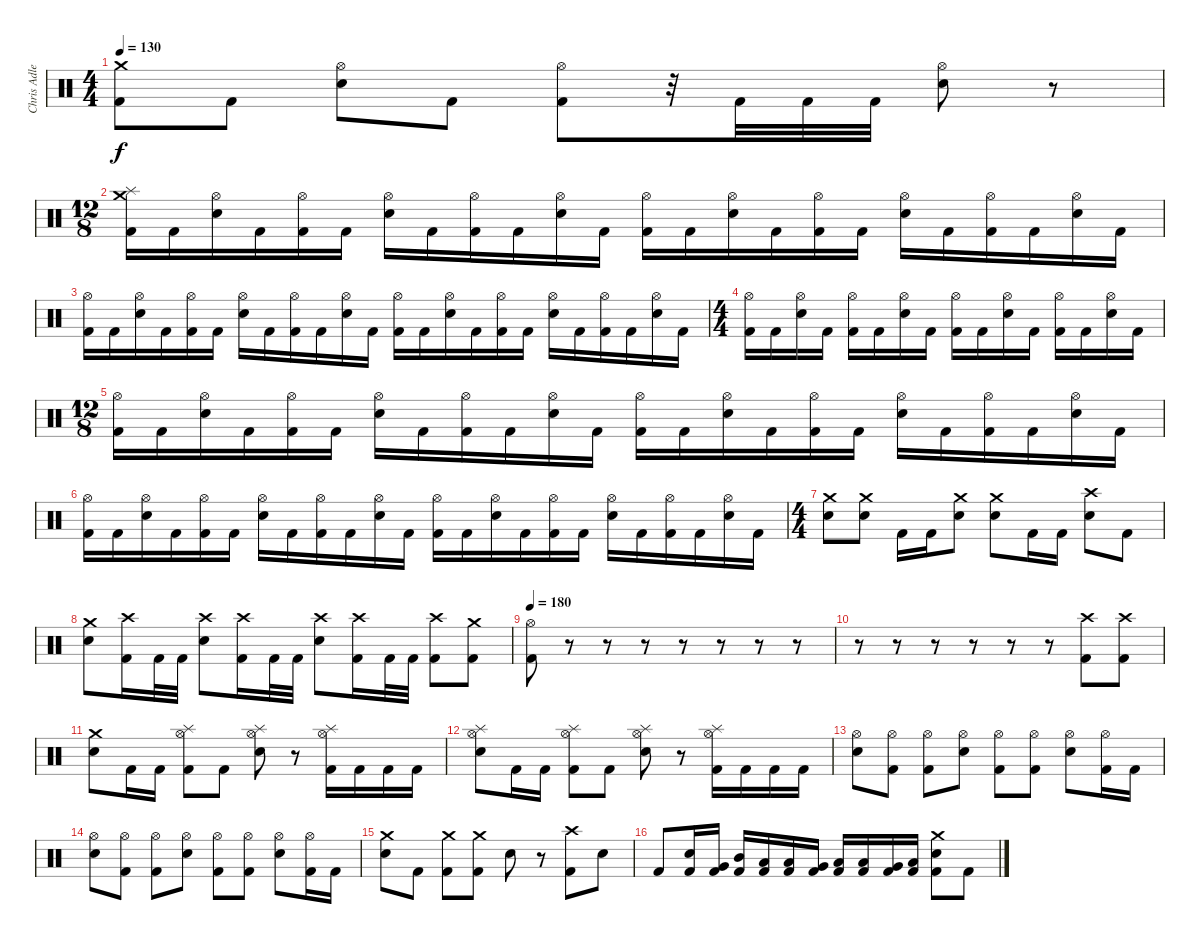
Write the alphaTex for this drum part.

\track ("Chris Adler - Drums" "Chris Adle") {instrument percussion}
\staff {score}
\articulation defaults
\ts (4 4)
\tempo 130
\clef neutral
\ks c
("Crash medium (hit)" "Kick (hit) 2").8{dy f} "Kick (hit) 2".8 ("Hi-Hat (open)" "Snare (hit) 2").8 "Kick (hit) 2".8 ("Hi-Hat (open)" "Kick (hit) 2").8 r.32 "Kick (hit) 2".32 "Kick (hit) 2".32 "Kick (hit) 2".32 ("Hi-Hat (open)" "Snare (hit) 2").8 r.8 |
\ts (12 8)
("Splash (hit)" "Crash medium (hit)" "Kick (hit) 2").16 "Kick (hit) 2".16 ("Hi-Hat (open)" "Snare (hit) 2").16 "Kick (hit) 2".16 ("Hi-Hat (open)" "Kick (hit) 2").16 "Kick (hit) 2".16 ("Hi-Hat (open)" "Snare (hit) 2").16 "Kick (hit) 2".16 ("Hi-Hat (open)" "Kick (hit) 2").16 "Kick (hit) 2".16 ("Hi-Hat (open)" "Snare (hit) 2").16 "Kick (hit) 2".16 ("Hi-Hat (open)" "Kick (hit) 2").16 "Kick (hit) 2".16 ("Hi-Hat (open)" "Snare (hit) 2").16 "Kick (hit) 2".16 ("Hi-Hat (open)" "Kick (hit) 2").16 "Kick (hit) 2".16 ("Hi-Hat (open)" "Snare (hit) 2").16 "Kick (hit) 2".16 ("Hi-Hat (open)" "Kick (hit) 2").16 "Kick (hit) 2".16 ("Hi-Hat (open)" "Snare (hit) 2").16 "Kick (hit) 2".16 |
("Hi-Hat (open)" "Kick (hit) 2").16 "Kick (hit) 2".16 ("Hi-Hat (open)" "Snare (hit) 2").16 "Kick (hit) 2".16 ("Hi-Hat (open)" "Kick (hit) 2").16 "Kick (hit) 2".16 ("Hi-Hat (open)" "Snare (hit) 2").16 "Kick (hit) 2".16 ("Hi-Hat (open)" "Kick (hit) 2").16 "Kick (hit) 2".16 ("Hi-Hat (open)" "Snare (hit) 2").16 "Kick (hit) 2".16 ("Hi-Hat (open)" "Kick (hit) 2").16 "Kick (hit) 2".16 ("Hi-Hat (open)" "Snare (hit) 2").16 "Kick (hit) 2".16 ("Hi-Hat (open)" "Kick (hit) 2").16 "Kick (hit) 2".16 ("Hi-Hat (open)" "Snare (hit) 2").16 "Kick (hit) 2".16 ("Hi-Hat (open)" "Kick (hit) 2").16 "Kick (hit) 2".16 ("Hi-Hat (open)" "Snare (hit) 2").16 "Kick (hit) 2".16 |
\ts (4 4)
("Hi-Hat (open)" "Kick (hit) 2").16 "Kick (hit) 2".16 ("Hi-Hat (open)" "Snare (hit) 2").16 "Kick (hit) 2".16 ("Hi-Hat (open)" "Kick (hit) 2").16 "Kick (hit) 2".16 ("Hi-Hat (open)" "Snare (hit) 2").16 "Kick (hit) 2".16 ("Hi-Hat (open)" "Kick (hit) 2").16 "Kick (hit) 2".16 ("Hi-Hat (open)" "Snare (hit) 2").16 "Kick (hit) 2".16 ("Hi-Hat (open)" "Kick (hit) 2").16 "Kick (hit) 2".16 ("Hi-Hat (open)" "Snare (hit) 2").16 "Kick (hit) 2".16 |
\ts (12 8)
("Hi-Hat (open)" "Kick (hit) 2").16 "Kick (hit) 2".16 ("Hi-Hat (open)" "Snare (hit) 2").16 "Kick (hit) 2".16 ("Hi-Hat (open)" "Kick (hit) 2").16 "Kick (hit) 2".16 ("Hi-Hat (open)" "Snare (hit) 2").16 "Kick (hit) 2".16 ("Hi-Hat (open)" "Kick (hit) 2").16 "Kick (hit) 2".16 ("Hi-Hat (open)" "Snare (hit) 2").16 "Kick (hit) 2".16 ("Hi-Hat (open)" "Kick (hit) 2").16 "Kick (hit) 2".16 ("Hi-Hat (open)" "Snare (hit) 2").16 "Kick (hit) 2".16 ("Hi-Hat (open)" "Kick (hit) 2").16 "Kick (hit) 2".16 ("Hi-Hat (open)" "Snare (hit) 2").16 "Kick (hit) 2".16 ("Hi-Hat (open)" "Kick (hit) 2").16 "Kick (hit) 2".16 ("Hi-Hat (open)" "Snare (hit) 2").16 "Kick (hit) 2".16 |
("Hi-Hat (open)" "Kick (hit) 2").16 "Kick (hit) 2".16 ("Hi-Hat (open)" "Snare (hit) 2").16 "Kick (hit) 2".16 ("Hi-Hat (open)" "Kick (hit) 2").16 "Kick (hit) 2".16 ("Hi-Hat (open)" "Snare (hit) 2").16 "Kick (hit) 2".16 ("Hi-Hat (open)" "Kick (hit) 2").16 "Kick (hit) 2".16 ("Hi-Hat (open)" "Snare (hit) 2").16 "Kick (hit) 2".16 ("Hi-Hat (open)" "Kick (hit) 2").16 "Kick (hit) 2".16 ("Hi-Hat (open)" "Snare (hit) 2").16 "Kick (hit) 2".16 ("Hi-Hat (open)" "Kick (hit) 2").16 "Kick (hit) 2".16 ("Hi-Hat (open)" "Snare (hit) 2").16 "Kick (hit) 2".16 ("Hi-Hat (open)" "Kick (hit) 2").16 "Kick (hit) 2".16 ("Hi-Hat (open)" "Snare (hit) 2").16 "Kick (hit) 2".16 |
\ts (4 4)
("Crash medium (hit)" "Snare (hit) 2").8 ("Crash medium (hit)" "Snare (hit) 2").8 "Kick (hit) 2".16 "Kick (hit) 2".16 ("Crash medium (hit)" "Snare (hit) 2").8 ("Crash medium (hit)" "Snare (hit) 2").8 "Kick (hit) 2".16 "Kick (hit) 2".16 ("Crash high (hit)" "Snare (hit) 2").8 "Kick (hit) 2".8 |
("Crash medium (hit)" "Snare (hit) 2").8 ("Crash high (hit)" "Kick (hit) 2").16 "Kick (hit) 2".32 "Kick (hit) 2".32 ("Crash high (hit)" "Snare (hit) 2").8 ("Crash high (hit)" "Kick (hit) 2").16 "Kick (hit) 2".32 "Kick (hit) 2".32 ("Crash high (hit)" "Snare (hit) 2").8 ("Crash high (hit)" "Kick (hit) 2").16 "Kick (hit) 2".32 "Kick (hit) 2".32 ("Crash high (hit)" "Kick (hit) 2").8 ("Crash medium (hit)" "Kick (hit) 2").8 |
\tempo 180
("Hi-Hat (open)" "Kick (hit) 2").8 r.8 r.8 r.8 r.8 r.8 r.8 r.8 |
r.8 r.8 r.8 r.8 r.8 r.8 ("Crash high (hit)" "Kick (hit) 2").8 ("Crash high (hit)" "Kick (hit) 2").8 |
("Crash medium (hit)" "Snare (hit) 2").8 "Kick (hit) 2".16 "Kick (hit) 2".16 ("Splash (hit)" "Hi-Hat (open)" "Kick (hit) 2").8 "Kick (hit) 2".8 ("Splash (hit)" "Hi-Hat (open)" "Snare (hit) 2").8 r.8 ("Splash (hit)" "Hi-Hat (open)" "Kick (hit) 2").16 "Kick (hit) 2".16 "Kick (hit) 2".16 "Kick (hit) 2".16 |
("Splash (hit)" "Hi-Hat (open)" "Snare (hit) 2").8 "Kick (hit) 2".16 "Kick (hit) 2".16 ("Splash (hit)" "Hi-Hat (open)" "Kick (hit) 2").8 "Kick (hit) 2".8 ("Splash (hit)" "Hi-Hat (open)" "Snare (hit) 2").8 r.8 ("Splash (hit)" "Hi-Hat (open)" "Kick (hit) 2").16 "Kick (hit) 2".16 "Kick (hit) 2".16 "Kick (hit) 2".16 |
("Hi-Hat (open)" "Snare (hit) 2").8 ("Hi-Hat (open)" "Kick (hit) 2").8 ("Hi-Hat (open)" "Kick (hit) 2").8 ("Hi-Hat (open)" "Snare (hit) 2").8 ("Hi-Hat (open)" "Kick (hit) 2").8 ("Hi-Hat (open)" "Kick (hit) 2").8 ("Hi-Hat (open)" "Snare (hit) 2").8 ("Hi-Hat (open)" "Kick (hit) 2").16 "Kick (hit) 2".16 |
("Hi-Hat (open)" "Snare (hit) 2").8 ("Hi-Hat (open)" "Kick (hit) 2").8 ("Hi-Hat (open)" "Kick (hit) 2").8 ("Hi-Hat (open)" "Snare (hit) 2").8 ("Hi-Hat (open)" "Kick (hit) 2").8 ("Hi-Hat (open)" "Kick (hit) 2").8 ("Hi-Hat (open)" "Snare (hit) 2").8 ("Hi-Hat (open)" "Kick (hit) 2").16 "Kick (hit) 2".16 |
("Crash medium (hit)" "Snare (hit) 2").8 "Kick (hit) 2".8 ("Crash medium (hit)" "Kick (hit) 2").8 ("Crash medium (hit)" "Kick (hit) 2").8 "Snare (hit) 2".8 r.8 ("Crash high (hit)" "Kick (hit) 2").8 "Snare (hit) 2".8 |
"Kick (hit) 2".8 ("Snare (hit) 2" "Kick (hit) 2").16 ("Very Low Tom (hit)" "Kick (hit) 2").16 ("Mid Tom (hit)" "Kick (hit) 2").16 ("Low Tom (hit)" "Kick (hit) 2").16 ("Low Floor Tom (hit)" "Kick (hit) 2").16 ("Very Low Tom (hit)" "Kick (hit) 2").16 ("Low Tom (hit)" "Kick (hit) 2").16 ("Low Floor Tom (hit)" "Kick (hit) 2").16 ("Very Low Tom (hit)" "Kick (hit) 2").16 ("Low Tom (hit)" "Kick (hit) 2").16 ("Crash medium (hit)" "Snare (hit) 2" "Kick (hit) 2").8 "Kick (hit) 2".8
